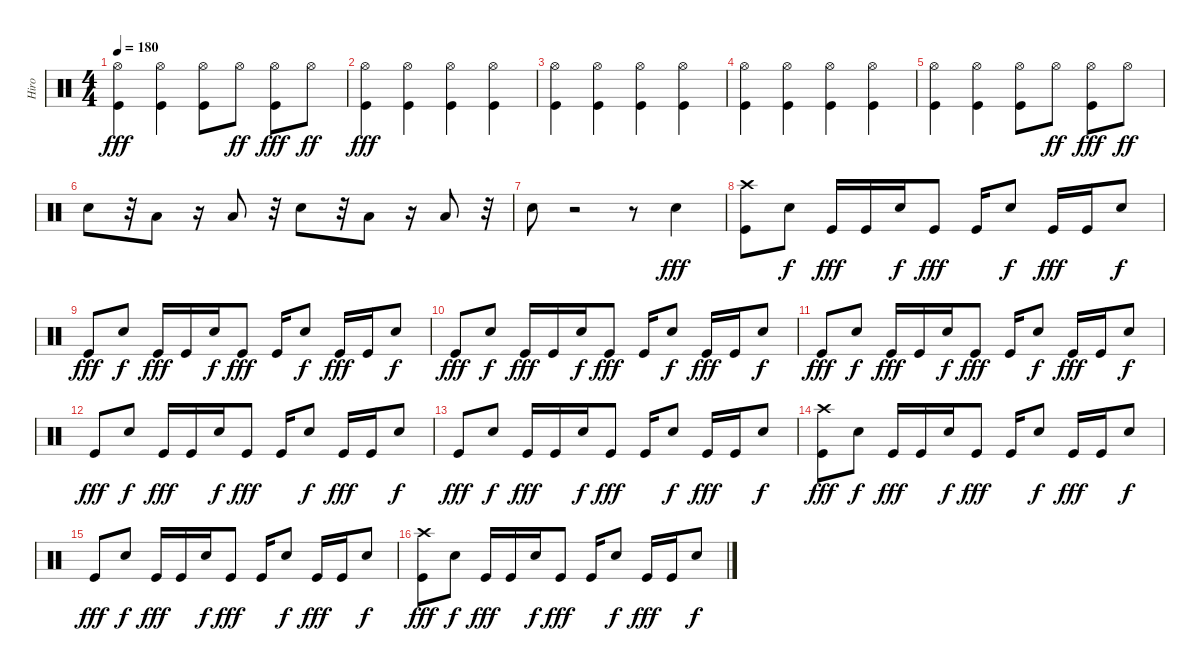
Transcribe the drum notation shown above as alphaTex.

\track ("Hiro" "Hiro") {instrument percussion}
\staff {score}
\articulation defaults
\ts (4 4)
\tempo 180
\clef neutral
\ks c
("Hi-Hat (open)" "Kick (hit)").4{dy fff} ("Hi-Hat (open)" "Kick (hit)").4 ("Hi-Hat (open)" "Kick (hit)").8 "Hi-Hat (open)".8{dy ff} ("Hi-Hat (open)" "Kick (hit)").8{dy fff} "Hi-Hat (open)".8{dy ff} |
("Hi-Hat (open)" "Kick (hit)").4{dy fff} ("Hi-Hat (open)" "Kick (hit)").4 ("Hi-Hat (open)" "Kick (hit)").4 ("Hi-Hat (open)" "Kick (hit)").4 |
("Hi-Hat (open)" "Kick (hit)").4 ("Hi-Hat (open)" "Kick (hit)").4 ("Hi-Hat (open)" "Kick (hit)").4 ("Hi-Hat (open)" "Kick (hit)").4 |
("Hi-Hat (open)" "Kick (hit)").4 ("Hi-Hat (open)" "Kick (hit)").4 ("Hi-Hat (open)" "Kick (hit)").4 ("Hi-Hat (open)" "Kick (hit)").4 |
("Hi-Hat (open)" "Kick (hit)").4 ("Hi-Hat (open)" "Kick (hit)").4 ("Hi-Hat (open)" "Kick (hit)").8 "Hi-Hat (open)".8{dy ff} ("Hi-Hat (open)" "Kick (hit)").8{dy fff} "Hi-Hat (open)".8{dy ff} |
"Electric Snare (hit)".8 r.32 "Low Tom (hit)".8 r.16 "Low Floor Tom (hit)".8 r.32 "Electric Snare (hit)".8 r.32 "Low Tom (hit)".8 r.16 "Low Floor Tom (hit)".8 r.32 |
"Electric Snare (hit)".8 r.2 r.8 "Hand Clap (hit)".4{dy fff} |
("Crash high (hit)" "Kick (hit)").8 "Electric Snare (hit)".8{dy f} "Kick (hit)".16{dy fff} "Kick (hit)".16 "Electric Snare (hit)".16{dy f} "Kick (hit)".8{dy fff} "Kick (hit)".16 "Electric Snare (hit)".8{dy f} "Kick (hit)".16{dy fff} "Kick (hit)".16 "Electric Snare (hit)".8{dy f} |
"Kick (hit)".8{dy fff} "Electric Snare (hit)".8{dy f} "Kick (hit)".16{dy fff} "Kick (hit)".16 "Electric Snare (hit)".16{dy f} "Kick (hit)".8{dy fff} "Kick (hit)".16 "Electric Snare (hit)".8{dy f} "Kick (hit)".16{dy fff} "Kick (hit)".16 "Electric Snare (hit)".8{dy f} |
"Kick (hit)".8{dy fff} "Electric Snare (hit)".8{dy f} "Kick (hit)".16{dy fff} "Kick (hit)".16 "Electric Snare (hit)".16{dy f} "Kick (hit)".8{dy fff} "Kick (hit)".16 "Electric Snare (hit)".8{dy f} "Kick (hit)".16{dy fff} "Kick (hit)".16 "Electric Snare (hit)".8{dy f} |
"Kick (hit)".8{dy fff} "Electric Snare (hit)".8{dy f} "Kick (hit)".16{dy fff} "Kick (hit)".16 "Electric Snare (hit)".16{dy f} "Kick (hit)".8{dy fff} "Kick (hit)".16 "Electric Snare (hit)".8{dy f} "Kick (hit)".16{dy fff} "Kick (hit)".16 "Electric Snare (hit)".8{dy f} |
"Kick (hit)".8{dy fff} "Electric Snare (hit)".8{dy f} "Kick (hit)".16{dy fff} "Kick (hit)".16 "Electric Snare (hit)".16{dy f} "Kick (hit)".8{dy fff} "Kick (hit)".16 "Electric Snare (hit)".8{dy f} "Kick (hit)".16{dy fff} "Kick (hit)".16 "Electric Snare (hit)".8{dy f} |
"Kick (hit)".8{dy fff} "Electric Snare (hit)".8{dy f} "Kick (hit)".16{dy fff} "Kick (hit)".16 "Electric Snare (hit)".16{dy f} "Kick (hit)".8{dy fff} "Kick (hit)".16 "Electric Snare (hit)".8{dy f} "Kick (hit)".16{dy fff} "Kick (hit)".16 "Electric Snare (hit)".8{dy f} |
("Crash high (hit)" "Kick (hit)").8{dy fff} "Electric Snare (hit)".8{dy f} "Kick (hit)".16{dy fff} "Kick (hit)".16 "Electric Snare (hit)".16{dy f} "Kick (hit)".8{dy fff} "Kick (hit)".16 "Electric Snare (hit)".8{dy f} "Kick (hit)".16{dy fff} "Kick (hit)".16 "Electric Snare (hit)".8{dy f} |
"Kick (hit)".8{dy fff} "Electric Snare (hit)".8{dy f} "Kick (hit)".16{dy fff} "Kick (hit)".16 "Electric Snare (hit)".16{dy f} "Kick (hit)".8{dy fff} "Kick (hit)".16 "Electric Snare (hit)".8{dy f} "Kick (hit)".16{dy fff} "Kick (hit)".16 "Electric Snare (hit)".8{dy f} |
("Crash high (hit)" "Kick (hit)").8{dy fff} "Electric Snare (hit)".8{dy f} "Kick (hit)".16{dy fff} "Kick (hit)".16 "Electric Snare (hit)".16{dy f} "Kick (hit)".8{dy fff} "Kick (hit)".16 "Electric Snare (hit)".8{dy f} "Kick (hit)".16{dy fff} "Kick (hit)".16 "Electric Snare (hit)".8{dy f}
